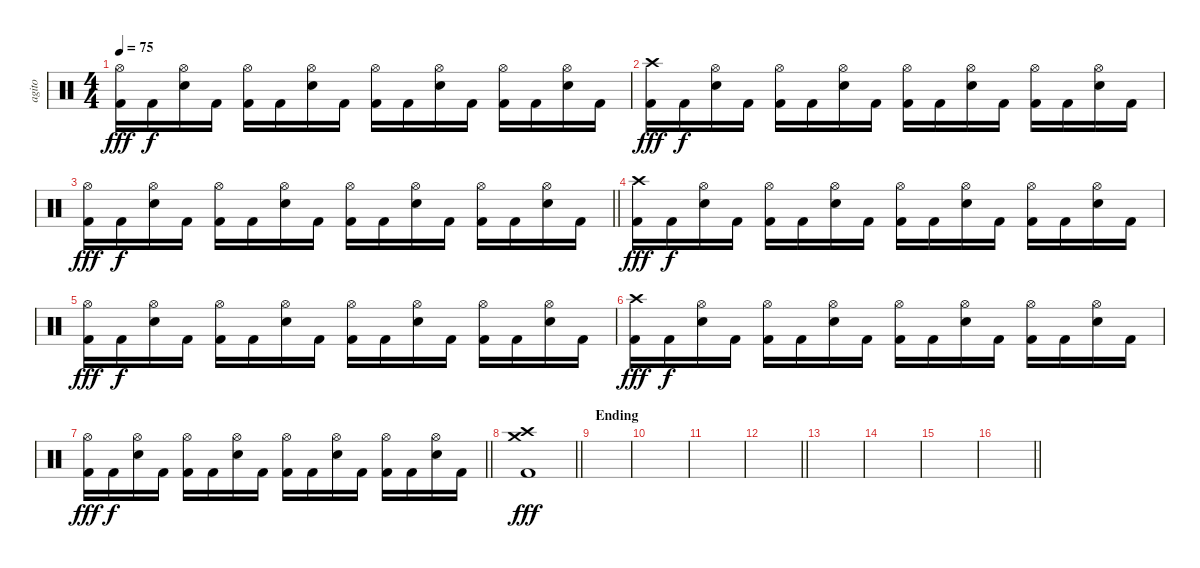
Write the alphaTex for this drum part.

\track ("agito" "agito") {instrument percussion}
\staff {score}
\articulation defaults
\ts (4 4)
\tempo 75
\clef neutral
\ks c
("Hi-Hat (open)" "Kick (hit) 2").16{dy fff} "Kick (hit) 2".16{dy f} ("Hi-Hat (open)" "Snare (hit) 2").16 "Kick (hit) 2".16 ("Hi-Hat (open)" "Kick (hit) 2").16 "Kick (hit) 2".16 ("Hi-Hat (open)" "Snare (hit) 2").16 "Kick (hit) 2".16 ("Hi-Hat (open)" "Kick (hit) 2").16 "Kick (hit) 2".16 ("Hi-Hat (open)" "Snare (hit) 2").16 "Kick (hit) 2".16 ("Hi-Hat (open)" "Kick (hit) 2").16 "Kick (hit) 2".16 ("Hi-Hat (open)" "Snare (hit) 2").16 "Kick (hit) 2".16 |
("Crash high (hit)" "Kick (hit) 2").16{dy fff} "Kick (hit) 2".16{dy f} ("Hi-Hat (open)" "Snare (hit) 2").16 "Kick (hit) 2".16 ("Hi-Hat (open)" "Kick (hit) 2").16 "Kick (hit) 2".16 ("Hi-Hat (open)" "Snare (hit) 2").16 "Kick (hit) 2".16 ("Hi-Hat (open)" "Kick (hit) 2").16 "Kick (hit) 2".16 ("Hi-Hat (open)" "Snare (hit) 2").16 "Kick (hit) 2".16 ("Hi-Hat (open)" "Kick (hit) 2").16 "Kick (hit) 2".16 ("Hi-Hat (open)" "Snare (hit) 2").16 "Kick (hit) 2".16 |
\barLineRight lightlight
("Hi-Hat (open)" "Kick (hit) 2").16{dy fff} "Kick (hit) 2".16{dy f} ("Hi-Hat (open)" "Snare (hit) 2").16 "Kick (hit) 2".16 ("Hi-Hat (open)" "Kick (hit) 2").16 "Kick (hit) 2".16 ("Hi-Hat (open)" "Snare (hit) 2").16 "Kick (hit) 2".16 ("Hi-Hat (open)" "Kick (hit) 2").16 "Kick (hit) 2".16 ("Hi-Hat (open)" "Snare (hit) 2").16 "Kick (hit) 2".16 ("Hi-Hat (open)" "Kick (hit) 2").16 "Kick (hit) 2".16 ("Hi-Hat (open)" "Snare (hit) 2").16 "Kick (hit) 2".16 |
("Crash high (hit)" "Kick (hit) 2").16{dy fff} "Kick (hit) 2".16{dy f} ("Hi-Hat (open)" "Snare (hit) 2").16 "Kick (hit) 2".16 ("Hi-Hat (open)" "Kick (hit) 2").16 "Kick (hit) 2".16 ("Hi-Hat (open)" "Snare (hit) 2").16 "Kick (hit) 2".16 ("Hi-Hat (open)" "Kick (hit) 2").16 "Kick (hit) 2".16 ("Hi-Hat (open)" "Snare (hit) 2").16 "Kick (hit) 2".16 ("Hi-Hat (open)" "Kick (hit) 2").16 "Kick (hit) 2".16 ("Hi-Hat (open)" "Snare (hit) 2").16 "Kick (hit) 2".16 |
("Hi-Hat (open)" "Kick (hit) 2").16{dy fff} "Kick (hit) 2".16{dy f} ("Hi-Hat (open)" "Snare (hit) 2").16 "Kick (hit) 2".16 ("Hi-Hat (open)" "Kick (hit) 2").16 "Kick (hit) 2".16 ("Hi-Hat (open)" "Snare (hit) 2").16 "Kick (hit) 2".16 ("Hi-Hat (open)" "Kick (hit) 2").16 "Kick (hit) 2".16 ("Hi-Hat (open)" "Snare (hit) 2").16 "Kick (hit) 2".16 ("Hi-Hat (open)" "Kick (hit) 2").16 "Kick (hit) 2".16 ("Hi-Hat (open)" "Snare (hit) 2").16 "Kick (hit) 2".16 |
("Crash high (hit)" "Kick (hit) 2").16{dy fff} "Kick (hit) 2".16{dy f} ("Hi-Hat (open)" "Snare (hit) 2").16 "Kick (hit) 2".16 ("Hi-Hat (open)" "Kick (hit) 2").16 "Kick (hit) 2".16 ("Hi-Hat (open)" "Snare (hit) 2").16 "Kick (hit) 2".16 ("Hi-Hat (open)" "Kick (hit) 2").16 "Kick (hit) 2".16 ("Hi-Hat (open)" "Snare (hit) 2").16 "Kick (hit) 2".16 ("Hi-Hat (open)" "Kick (hit) 2").16 "Kick (hit) 2".16 ("Hi-Hat (open)" "Snare (hit) 2").16 "Kick (hit) 2".16 |
\barLineRight lightlight
("Hi-Hat (open)" "Kick (hit) 2").16{dy fff} "Kick (hit) 2".16{dy f} ("Hi-Hat (open)" "Snare (hit) 2").16 "Kick (hit) 2".16 ("Hi-Hat (open)" "Kick (hit) 2").16 "Kick (hit) 2".16 ("Hi-Hat (open)" "Snare (hit) 2").16 "Kick (hit) 2".16 ("Hi-Hat (open)" "Kick (hit) 2").16 "Kick (hit) 2".16 ("Hi-Hat (open)" "Snare (hit) 2").16 "Kick (hit) 2".16 ("Hi-Hat (open)" "Kick (hit) 2").16 "Kick (hit) 2".16 ("Hi-Hat (open)" "Snare (hit) 2").16 "Kick (hit) 2".16 |
\barLineRight lightlight
("Crash medium (hit)" "Crash high (hit)" "Kick (hit) 2").1{dy fff} |
\section ("" "Ending")
|
|
|
\barLineRight lightlight
|
|
|
|
\barLineRight lightlight
